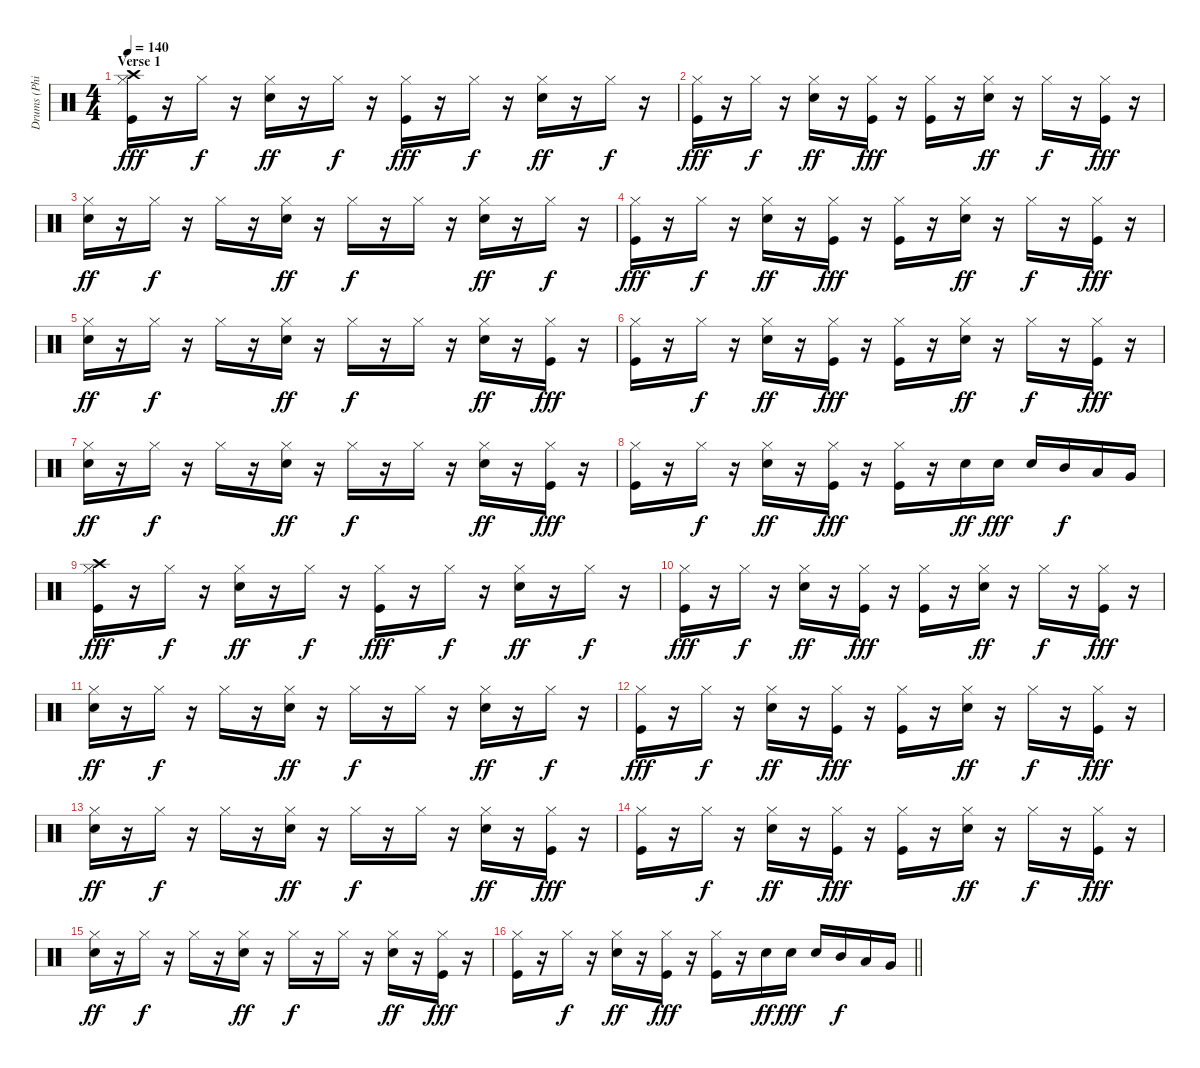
\track ("Drums (Phillip Selway)" "Drums (Phi") {instrument percussion}
\staff {score}
\articulation defaults
\ts (4 4)
\section ("" "Verse 1")
\tempo 140
\clef neutral
\ks c
("Crash high (hit)" "Hi-Hat (closed)" "Kick (hit)").16{dy fff} r.16 "Hi-Hat (closed)".16{dy f} r.16 ("Hi-Hat (closed)" "Electric Snare (hit)").16{dy ff} r.16 "Hi-Hat (closed)".16{dy f} r.16 ("Hi-Hat (closed)" "Kick (hit)").16{dy fff} r.16 "Hi-Hat (closed)".16{dy f} r.16 ("Hi-Hat (closed)" "Electric Snare (hit)").16{dy ff} r.16 "Hi-Hat (closed)".16{dy f} r.16 |
("Hi-Hat (closed)" "Kick (hit)").16{dy fff} r.16 "Hi-Hat (closed)".16{dy f} r.16 ("Hi-Hat (closed)" "Electric Snare (hit)").16{dy ff} r.16 ("Hi-Hat (closed)" "Kick (hit)").16{dy fff} r.16 ("Hi-Hat (closed)" "Kick (hit)").16 r.16 ("Hi-Hat (closed)" "Electric Snare (hit)").16{dy ff} r.16 "Hi-Hat (closed)".16{dy f} r.16 ("Hi-Hat (closed)" "Kick (hit)").16{dy fff} r.16 |
("Hi-Hat (closed)" "Electric Snare (hit)").16{dy ff} r.16 "Hi-Hat (closed)".16{dy f} r.16 "Hi-Hat (closed)".16 r.16 ("Hi-Hat (closed)" "Electric Snare (hit)").16{dy ff} r.16 "Hi-Hat (closed)".16{dy f} r.16 "Hi-Hat (closed)".16 r.16 ("Hi-Hat (closed)" "Electric Snare (hit)").16{dy ff} r.16 "Hi-Hat (closed)".16{dy f} r.16 |
("Hi-Hat (closed)" "Kick (hit)").16{dy fff} r.16 "Hi-Hat (closed)".16{dy f} r.16 ("Hi-Hat (closed)" "Electric Snare (hit)").16{dy ff} r.16 ("Hi-Hat (closed)" "Kick (hit)").16{dy fff} r.16 ("Hi-Hat (closed)" "Kick (hit)").16 r.16 ("Hi-Hat (closed)" "Electric Snare (hit)").16{dy ff} r.16 "Hi-Hat (closed)".16{dy f} r.16 ("Hi-Hat (closed)" "Kick (hit)").16{dy fff} r.16 |
("Hi-Hat (closed)" "Electric Snare (hit)").16{dy ff} r.16 "Hi-Hat (closed)".16{dy f} r.16 "Hi-Hat (closed)".16 r.16 ("Hi-Hat (closed)" "Electric Snare (hit)").16{dy ff} r.16 "Hi-Hat (closed)".16{dy f} r.16 "Hi-Hat (closed)".16 r.16 ("Hi-Hat (closed)" "Electric Snare (hit)").16{dy ff} r.16 ("Hi-Hat (closed)" "Kick (hit)").16{dy fff} r.16 |
("Hi-Hat (closed)" "Kick (hit)").16 r.16 "Hi-Hat (closed)".16{dy f} r.16 ("Hi-Hat (closed)" "Electric Snare (hit)").16{dy ff} r.16 ("Hi-Hat (closed)" "Kick (hit)").16{dy fff} r.16 ("Hi-Hat (closed)" "Kick (hit)").16 r.16 ("Hi-Hat (closed)" "Electric Snare (hit)").16{dy ff} r.16 "Hi-Hat (closed)".16{dy f} r.16 ("Hi-Hat (closed)" "Kick (hit)").16{dy fff} r.16 |
("Hi-Hat (closed)" "Electric Snare (hit)").16{dy ff} r.16 "Hi-Hat (closed)".16{dy f} r.16 "Hi-Hat (closed)".16 r.16 ("Hi-Hat (closed)" "Electric Snare (hit)").16{dy ff} r.16 "Hi-Hat (closed)".16{dy f} r.16 "Hi-Hat (closed)".16 r.16 ("Hi-Hat (closed)" "Electric Snare (hit)").16{dy ff} r.16 ("Hi-Hat (closed)" "Kick (hit)").16{dy fff} r.16 |
("Hi-Hat (closed)" "Kick (hit)").16 r.16 "Hi-Hat (closed)".16{dy f} r.16 ("Hi-Hat (closed)" "Electric Snare (hit)").16{dy ff} r.16 ("Hi-Hat (closed)" "Kick (hit)").16{dy fff} r.16 ("Hi-Hat (closed)" "Kick (hit)").16 r.16 "Electric Snare (hit)".16{dy ff} "Electric Snare (hit)".16{dy fff} "Electric Snare (hit)".16 "Mid Tom (hit)".16{dy f} "Low Tom (hit)".16 "Very Low Tom (hit)".16 |
("Crash high (hit)" "Hi-Hat (closed)" "Kick (hit)").16{dy fff} r.16 "Hi-Hat (closed)".16{dy f} r.16 ("Hi-Hat (closed)" "Electric Snare (hit)").16{dy ff} r.16 "Hi-Hat (closed)".16{dy f} r.16 ("Hi-Hat (closed)" "Kick (hit)").16{dy fff} r.16 "Hi-Hat (closed)".16{dy f} r.16 ("Hi-Hat (closed)" "Electric Snare (hit)").16{dy ff} r.16 "Hi-Hat (closed)".16{dy f} r.16 |
("Hi-Hat (closed)" "Kick (hit)").16{dy fff} r.16 "Hi-Hat (closed)".16{dy f} r.16 ("Hi-Hat (closed)" "Electric Snare (hit)").16{dy ff} r.16 ("Hi-Hat (closed)" "Kick (hit)").16{dy fff} r.16 ("Hi-Hat (closed)" "Kick (hit)").16 r.16 ("Hi-Hat (closed)" "Electric Snare (hit)").16{dy ff} r.16 "Hi-Hat (closed)".16{dy f} r.16 ("Hi-Hat (closed)" "Kick (hit)").16{dy fff} r.16 |
("Hi-Hat (closed)" "Electric Snare (hit)").16{dy ff} r.16 "Hi-Hat (closed)".16{dy f} r.16 "Hi-Hat (closed)".16 r.16 ("Hi-Hat (closed)" "Electric Snare (hit)").16{dy ff} r.16 "Hi-Hat (closed)".16{dy f} r.16 "Hi-Hat (closed)".16 r.16 ("Hi-Hat (closed)" "Electric Snare (hit)").16{dy ff} r.16 "Hi-Hat (closed)".16{dy f} r.16 |
("Hi-Hat (closed)" "Kick (hit)").16{dy fff} r.16 "Hi-Hat (closed)".16{dy f} r.16 ("Hi-Hat (closed)" "Electric Snare (hit)").16{dy ff} r.16 ("Hi-Hat (closed)" "Kick (hit)").16{dy fff} r.16 ("Hi-Hat (closed)" "Kick (hit)").16 r.16 ("Hi-Hat (closed)" "Electric Snare (hit)").16{dy ff} r.16 "Hi-Hat (closed)".16{dy f} r.16 ("Hi-Hat (closed)" "Kick (hit)").16{dy fff} r.16 |
("Hi-Hat (closed)" "Electric Snare (hit)").16{dy ff} r.16 "Hi-Hat (closed)".16{dy f} r.16 "Hi-Hat (closed)".16 r.16 ("Hi-Hat (closed)" "Electric Snare (hit)").16{dy ff} r.16 "Hi-Hat (closed)".16{dy f} r.16 "Hi-Hat (closed)".16 r.16 ("Hi-Hat (closed)" "Electric Snare (hit)").16{dy ff} r.16 ("Hi-Hat (closed)" "Kick (hit)").16{dy fff} r.16 |
("Hi-Hat (closed)" "Kick (hit)").16 r.16 "Hi-Hat (closed)".16{dy f} r.16 ("Hi-Hat (closed)" "Electric Snare (hit)").16{dy ff} r.16 ("Hi-Hat (closed)" "Kick (hit)").16{dy fff} r.16 ("Hi-Hat (closed)" "Kick (hit)").16 r.16 ("Hi-Hat (closed)" "Electric Snare (hit)").16{dy ff} r.16 "Hi-Hat (closed)".16{dy f} r.16 ("Hi-Hat (closed)" "Kick (hit)").16{dy fff} r.16 |
("Hi-Hat (closed)" "Electric Snare (hit)").16{dy ff} r.16 "Hi-Hat (closed)".16{dy f} r.16 "Hi-Hat (closed)".16 r.16 ("Hi-Hat (closed)" "Electric Snare (hit)").16{dy ff} r.16 "Hi-Hat (closed)".16{dy f} r.16 "Hi-Hat (closed)".16 r.16 ("Hi-Hat (closed)" "Electric Snare (hit)").16{dy ff} r.16 ("Hi-Hat (closed)" "Kick (hit)").16{dy fff} r.16 |
\barLineRight lightlight
("Hi-Hat (closed)" "Kick (hit)").16 r.16 "Hi-Hat (closed)".16{dy f} r.16 ("Hi-Hat (closed)" "Electric Snare (hit)").16{dy ff} r.16 ("Hi-Hat (closed)" "Kick (hit)").16{dy fff} r.16 ("Hi-Hat (closed)" "Kick (hit)").16 r.16 "Electric Snare (hit)".16{dy ff} "Electric Snare (hit)".16{dy fff} "Electric Snare (hit)".16 "Mid Tom (hit)".16{dy f} "Low Tom (hit)".16 "Very Low Tom (hit)".16
